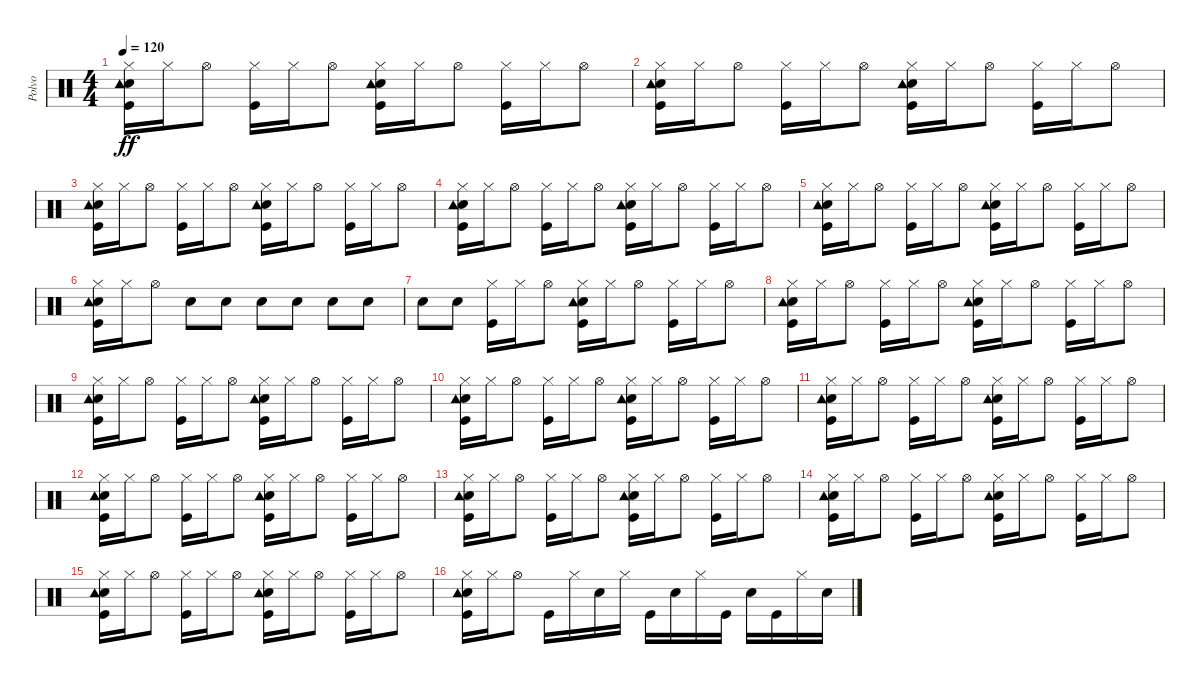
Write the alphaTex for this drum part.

\track ("Polvo" "Polvo") {instrument percussion}
\staff {score}
\articulation defaults
\ts (4 4)
\tempo 120
\clef neutral
\ks c
("Hi-Hat (closed)" "Electric Snare (hit)" "Kick (hit)" "Tambourine (hit)").16{dy ff} "Hi-Hat (closed)".16 "Hi-Hat (open)".8 ("Hi-Hat (closed)" "Kick (hit)").16 "Hi-Hat (closed)".16 "Hi-Hat (open)".8 ("Hi-Hat (closed)" "Electric Snare (hit)" "Kick (hit)" "Tambourine (hit)").16 "Hi-Hat (closed)".16 "Hi-Hat (open)".8 ("Hi-Hat (closed)" "Kick (hit)").16 "Hi-Hat (closed)".16 "Hi-Hat (open)".8 |
("Hi-Hat (closed)" "Electric Snare (hit)" "Kick (hit)" "Tambourine (hit)").16 "Hi-Hat (closed)".16 "Hi-Hat (open)".8 ("Hi-Hat (closed)" "Kick (hit)").16 "Hi-Hat (closed)".16 "Hi-Hat (open)".8 ("Hi-Hat (closed)" "Electric Snare (hit)" "Kick (hit)" "Tambourine (hit)").16 "Hi-Hat (closed)".16 "Hi-Hat (open)".8 ("Hi-Hat (closed)" "Kick (hit)").16 "Hi-Hat (closed)".16 "Hi-Hat (open)".8 |
("Hi-Hat (closed)" "Electric Snare (hit)" "Kick (hit)" "Tambourine (hit)").16 "Hi-Hat (closed)".16 "Hi-Hat (open)".8 ("Hi-Hat (closed)" "Kick (hit)").16 "Hi-Hat (closed)".16 "Hi-Hat (open)".8 ("Hi-Hat (closed)" "Electric Snare (hit)" "Kick (hit)" "Tambourine (hit)").16 "Hi-Hat (closed)".16 "Hi-Hat (open)".8 ("Hi-Hat (closed)" "Kick (hit)").16 "Hi-Hat (closed)".16 "Hi-Hat (open)".8 |
("Hi-Hat (closed)" "Electric Snare (hit)" "Kick (hit)" "Tambourine (hit)").16 "Hi-Hat (closed)".16 "Hi-Hat (open)".8 ("Hi-Hat (closed)" "Kick (hit)").16 "Hi-Hat (closed)".16 "Hi-Hat (open)".8 ("Hi-Hat (closed)" "Electric Snare (hit)" "Kick (hit)" "Tambourine (hit)").16 "Hi-Hat (closed)".16 "Hi-Hat (open)".8 ("Hi-Hat (closed)" "Kick (hit)").16 "Hi-Hat (closed)".16 "Hi-Hat (open)".8 |
("Hi-Hat (closed)" "Electric Snare (hit)" "Kick (hit)" "Tambourine (hit)").16 "Hi-Hat (closed)".16 "Hi-Hat (open)".8 ("Hi-Hat (closed)" "Kick (hit)").16 "Hi-Hat (closed)".16 "Hi-Hat (open)".8 ("Hi-Hat (closed)" "Electric Snare (hit)" "Kick (hit)" "Tambourine (hit)").16 "Hi-Hat (closed)".16 "Hi-Hat (open)".8 ("Hi-Hat (closed)" "Kick (hit)").16 "Hi-Hat (closed)".16 "Hi-Hat (open)".8 |
("Hi-Hat (closed)" "Electric Snare (hit)" "Kick (hit)" "Tambourine (hit)").16 "Hi-Hat (closed)".16 "Hi-Hat (open)".8 "Electric Snare (hit)".8 "Electric Snare (hit)".8 "Electric Snare (hit)".8 "Electric Snare (hit)".8 "Electric Snare (hit)".8 "Electric Snare (hit)".8 |
"Electric Snare (hit)".8 "Electric Snare (hit)".8 ("Hi-Hat (closed)" "Kick (hit)").16 "Hi-Hat (closed)".16 "Hi-Hat (open)".8 ("Hi-Hat (closed)" "Electric Snare (hit)" "Kick (hit)" "Tambourine (hit)").16 "Hi-Hat (closed)".16 "Hi-Hat (open)".8 ("Hi-Hat (closed)" "Kick (hit)").16 "Hi-Hat (closed)".16 "Hi-Hat (open)".8 |
("Hi-Hat (closed)" "Electric Snare (hit)" "Kick (hit)" "Tambourine (hit)").16 "Hi-Hat (closed)".16 "Hi-Hat (open)".8 ("Hi-Hat (closed)" "Kick (hit)").16 "Hi-Hat (closed)".16 "Hi-Hat (open)".8 ("Hi-Hat (closed)" "Electric Snare (hit)" "Kick (hit)" "Tambourine (hit)").16 "Hi-Hat (closed)".16 "Hi-Hat (open)".8 ("Hi-Hat (closed)" "Kick (hit)").16 "Hi-Hat (closed)".16 "Hi-Hat (open)".8 |
("Hi-Hat (closed)" "Electric Snare (hit)" "Kick (hit)" "Tambourine (hit)").16 "Hi-Hat (closed)".16 "Hi-Hat (open)".8 ("Hi-Hat (closed)" "Kick (hit)").16 "Hi-Hat (closed)".16 "Hi-Hat (open)".8 ("Hi-Hat (closed)" "Electric Snare (hit)" "Kick (hit)" "Tambourine (hit)").16 "Hi-Hat (closed)".16 "Hi-Hat (open)".8 ("Hi-Hat (closed)" "Kick (hit)").16 "Hi-Hat (closed)".16 "Hi-Hat (open)".8 |
("Hi-Hat (closed)" "Electric Snare (hit)" "Kick (hit)" "Tambourine (hit)").16 "Hi-Hat (closed)".16 "Hi-Hat (open)".8 ("Hi-Hat (closed)" "Kick (hit)").16 "Hi-Hat (closed)".16 "Hi-Hat (open)".8 ("Hi-Hat (closed)" "Electric Snare (hit)" "Kick (hit)" "Tambourine (hit)").16 "Hi-Hat (closed)".16 "Hi-Hat (open)".8 ("Hi-Hat (closed)" "Kick (hit)").16 "Hi-Hat (closed)".16 "Hi-Hat (open)".8 |
("Hi-Hat (closed)" "Electric Snare (hit)" "Kick (hit)" "Tambourine (hit)").16 "Hi-Hat (closed)".16 "Hi-Hat (open)".8 ("Hi-Hat (closed)" "Kick (hit)").16 "Hi-Hat (closed)".16 "Hi-Hat (open)".8 ("Hi-Hat (closed)" "Electric Snare (hit)" "Kick (hit)" "Tambourine (hit)").16 "Hi-Hat (closed)".16 "Hi-Hat (open)".8 ("Hi-Hat (closed)" "Kick (hit)").16 "Hi-Hat (closed)".16 "Hi-Hat (open)".8 |
("Hi-Hat (closed)" "Electric Snare (hit)" "Kick (hit)" "Tambourine (hit)").16 "Hi-Hat (closed)".16 "Hi-Hat (open)".8 ("Hi-Hat (closed)" "Kick (hit)").16 "Hi-Hat (closed)".16 "Hi-Hat (open)".8 ("Hi-Hat (closed)" "Electric Snare (hit)" "Kick (hit)" "Tambourine (hit)").16 "Hi-Hat (closed)".16 "Hi-Hat (open)".8 ("Hi-Hat (closed)" "Kick (hit)").16 "Hi-Hat (closed)".16 "Hi-Hat (open)".8 |
("Hi-Hat (closed)" "Electric Snare (hit)" "Kick (hit)" "Tambourine (hit)").16 "Hi-Hat (closed)".16 "Hi-Hat (open)".8 ("Hi-Hat (closed)" "Kick (hit)").16 "Hi-Hat (closed)".16 "Hi-Hat (open)".8 ("Hi-Hat (closed)" "Electric Snare (hit)" "Kick (hit)" "Tambourine (hit)").16 "Hi-Hat (closed)".16 "Hi-Hat (open)".8 ("Hi-Hat (closed)" "Kick (hit)").16 "Hi-Hat (closed)".16 "Hi-Hat (open)".8 |
("Hi-Hat (closed)" "Electric Snare (hit)" "Kick (hit)" "Tambourine (hit)").16 "Hi-Hat (closed)".16 "Hi-Hat (open)".8 ("Hi-Hat (closed)" "Kick (hit)").16 "Hi-Hat (closed)".16 "Hi-Hat (open)".8 ("Hi-Hat (closed)" "Electric Snare (hit)" "Kick (hit)" "Tambourine (hit)").16 "Hi-Hat (closed)".16 "Hi-Hat (open)".8 ("Hi-Hat (closed)" "Kick (hit)").16 "Hi-Hat (closed)".16 "Hi-Hat (open)".8 |
("Hi-Hat (closed)" "Electric Snare (hit)" "Kick (hit)" "Tambourine (hit)").16 "Hi-Hat (closed)".16 "Hi-Hat (open)".8 ("Hi-Hat (closed)" "Kick (hit)").16 "Hi-Hat (closed)".16 "Hi-Hat (open)".8 ("Hi-Hat (closed)" "Electric Snare (hit)" "Kick (hit)" "Tambourine (hit)").16 "Hi-Hat (closed)".16 "Hi-Hat (open)".8 ("Hi-Hat (closed)" "Kick (hit)").16 "Hi-Hat (closed)".16 "Hi-Hat (open)".8 |
("Hi-Hat (closed)" "Electric Snare (hit)" "Kick (hit)" "Tambourine (hit)").16 "Hi-Hat (closed)".16 "Hi-Hat (open)".8 "Kick (hit)".16 "Hi-Hat (closed)".16 "Electric Snare (hit)".16 "Hi-Hat (closed)".16 "Kick (hit)".16 "Electric Snare (hit)".16 "Hi-Hat (closed)".16 "Kick (hit)".16 "Electric Snare (hit)".16 "Kick (hit)".16 "Hi-Hat (closed)".16 "Electric Snare (hit)".16
